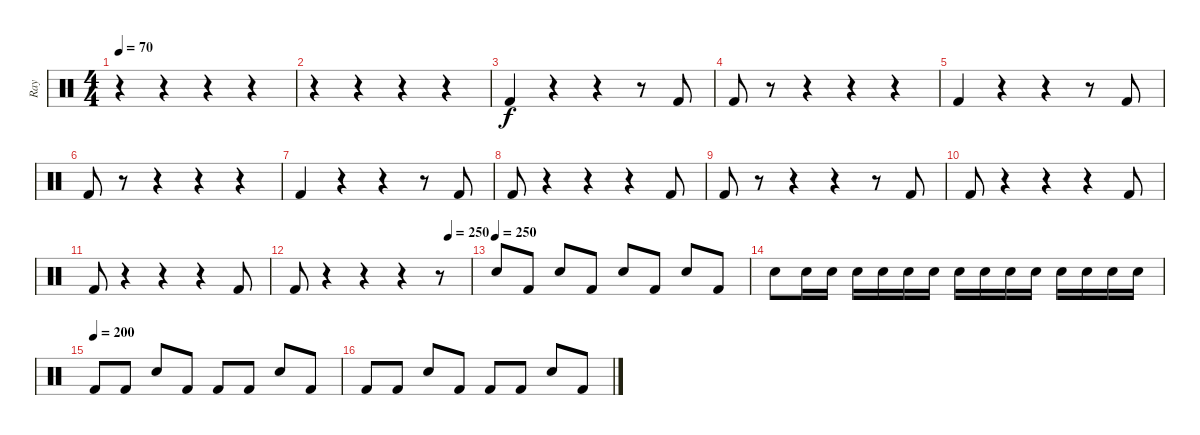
\track ("Ray" "Ray") {instrument percussion}
\staff {score}
\articulation defaults
\ts (4 4)
\tempo 70
\tempo 75
\tempo 70
\clef neutral
\ks c
r.4{dy f} r.4 r.4 r.4 |
r.4 r.4 r.4 r.4 |
"Kick (hit) 2".4 r.4 r.4 r.8 "Kick (hit) 2".8 |
"Kick (hit) 2".8 r.8 r.4 r.4 r.4 |
"Kick (hit) 2".4 r.4 r.4 r.8 "Kick (hit) 2".8 |
"Kick (hit) 2".8 r.8 r.4 r.4 r.4 |
"Kick (hit) 2".4 r.4 r.4 r.8 "Kick (hit) 2".8 |
"Kick (hit) 2".8 r.4 r.4 r.4 "Kick (hit) 2".8 |
"Kick (hit) 2".8 r.8 r.4 r.4 r.8 "Kick (hit) 2".8 |
"Kick (hit) 2".8 r.4 r.4 r.4 "Kick (hit) 2".8 |
"Kick (hit) 2".8 r.4 r.4 r.4 "Kick (hit) 2".8 |
\tempo (250 0.875)
"Kick (hit) 2".8 r.4 r.4 r.4 r.8 |
\tempo (250)
"Electric Snare (hit)".8 "Kick (hit) 2".8 "Electric Snare (hit)".8 "Kick (hit) 2".8 "Electric Snare (hit)".8 "Kick (hit) 2".8 "Electric Snare (hit)".8 "Kick (hit) 2".8 |
"Electric Snare (hit)".8 "Electric Snare (hit)".16 "Electric Snare (hit)".16 "Electric Snare (hit)".16 "Electric Snare (hit)".16 "Electric Snare (hit)".16 "Electric Snare (hit)".16 "Electric Snare (hit)".16 "Electric Snare (hit)".16 "Electric Snare (hit)".16 "Electric Snare (hit)".16 "Electric Snare (hit)".16 "Electric Snare (hit)".16 "Electric Snare (hit)".16 "Electric Snare (hit)".16 |
\tempo (200)
"Kick (hit) 2".8 "Kick (hit) 2".8 "Electric Snare (hit)".8 "Kick (hit) 2".8 "Kick (hit) 2".8 "Kick (hit) 2".8 "Electric Snare (hit)".8 "Kick (hit) 2".8 |
"Kick (hit) 2".8 "Kick (hit) 2".8 "Electric Snare (hit)".8 "Kick (hit) 2".8 "Kick (hit) 2".8 "Kick (hit) 2".8 "Electric Snare (hit)".8 "Kick (hit) 2".8
